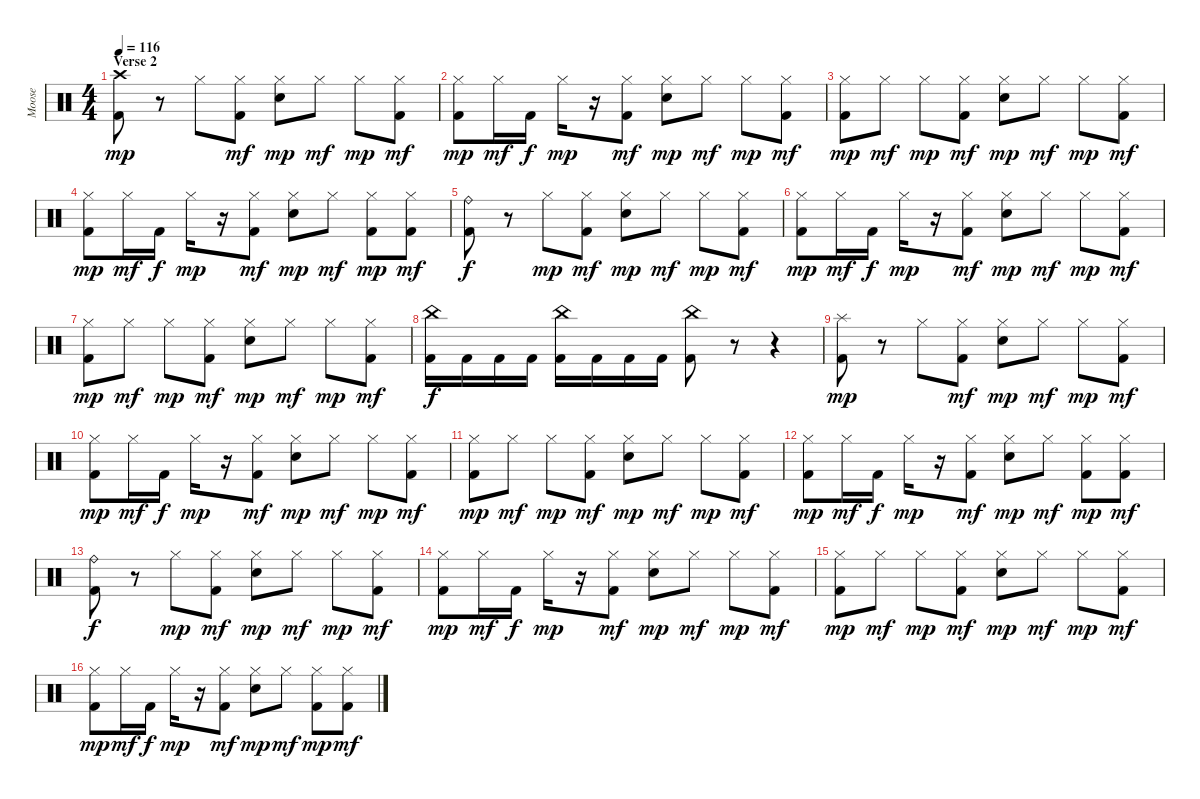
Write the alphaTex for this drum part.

\track ("Moose" "Moose") {instrument percussion}
\staff {score}
\articulation defaults
\ts (4 4)
\section ("" "Verse 2")
\tempo 116
\clef neutral
\ks c
("Kick (hit) 2" "Crash high (hit)").8{dy mp} r.8 "Hi-Hat (closed)".8 ("Kick (hit) 2" "Hi-Hat (closed)").8{dy mf} ("Snare (hit) 2" "Hi-Hat (closed)").8{dy mp} "Hi-Hat (closed)".8{dy mf} "Hi-Hat (closed)".8{dy mp} ("Kick (hit) 2" "Hi-Hat (closed)").8{dy mf} |
("Kick (hit) 2" "Hi-Hat (closed)").8{dy mp} "Hi-Hat (closed)".16{dy mf} "Kick (hit) 2".16{dy f} "Hi-Hat (closed)".16{dy mp} r.16 ("Kick (hit) 2" "Hi-Hat (closed)").8{dy mf} ("Snare (hit) 2" "Hi-Hat (closed)").8{dy mp} "Hi-Hat (closed)".8{dy mf} "Hi-Hat (closed)".8{dy mp} ("Kick (hit) 2" "Hi-Hat (closed)").8{dy mf} |
("Kick (hit) 2" "Hi-Hat (closed)").8{dy mp} "Hi-Hat (closed)".8{dy mf} "Hi-Hat (closed)".8{dy mp} ("Kick (hit) 2" "Hi-Hat (closed)").8{dy mf} ("Snare (hit) 2" "Hi-Hat (closed)").8{dy mp} "Hi-Hat (closed)".8{dy mf} "Hi-Hat (closed)".8{dy mp} ("Kick (hit) 2" "Hi-Hat (closed)").8{dy mf} |
("Kick (hit) 2" "Hi-Hat (closed)").8{dy mp} "Hi-Hat (closed)".16{dy mf} "Kick (hit) 2".16{dy f} "Hi-Hat (closed)".16{dy mp} r.16 ("Kick (hit) 2" "Hi-Hat (closed)").8{dy mf} ("Snare (hit) 2" "Hi-Hat (closed)").8{dy mp} "Hi-Hat (closed)".8{dy mf} ("Kick (hit) 2" "Hi-Hat (closed)").8{dy mp} ("Kick (hit) 2" "Hi-Hat (closed)").8{dy mf} |
("Kick (hit) 2" "Ride (bell)").8{dy f} r.8 "Hi-Hat (closed)".8{dy mp} ("Kick (hit) 2" "Hi-Hat (closed)").8{dy mf} ("Snare (hit) 2" "Hi-Hat (closed)").8{dy mp} "Hi-Hat (closed)".8{dy mf} "Hi-Hat (closed)".8{dy mp} ("Kick (hit) 2" "Hi-Hat (closed)").8{dy mf} |
("Kick (hit) 2" "Hi-Hat (closed)").8{dy mp} "Hi-Hat (closed)".16{dy mf} "Kick (hit) 2".16{dy f} "Hi-Hat (closed)".16{dy mp} r.16 ("Kick (hit) 2" "Hi-Hat (closed)").8{dy mf} ("Snare (hit) 2" "Hi-Hat (closed)").8{dy mp} "Hi-Hat (closed)".8{dy mf} "Hi-Hat (closed)".8{dy mp} ("Kick (hit) 2" "Hi-Hat (closed)").8{dy mf} |
("Kick (hit) 2" "Hi-Hat (closed)").8{dy mp} "Hi-Hat (closed)".8{dy mf} "Hi-Hat (closed)".8{dy mp} ("Kick (hit) 2" "Hi-Hat (closed)").8{dy mf} ("Snare (hit) 2" "Hi-Hat (closed)").8{dy mp} "Hi-Hat (closed)".8{dy mf} "Hi-Hat (closed)".8{dy mp} ("Kick (hit) 2" "Hi-Hat (closed)").8{dy mf} |
("Kick (hit) 2" "China (hit)").16{dy f} "Kick (hit) 2".16 "Kick (hit) 2".16 "Kick (hit) 2".16 ("Kick (hit) 2" "China (hit)").16 "Kick (hit) 2".16 "Kick (hit) 2".16 "Kick (hit) 2".16 ("Kick (hit) 2" "China (hit)").8 r.8 r.4 |
("Kick (hit) 2" "Splash (hit)").8{dy mp} r.8 "Hi-Hat (closed)".8 ("Kick (hit) 2" "Hi-Hat (closed)").8{dy mf} ("Snare (hit) 2" "Hi-Hat (closed)").8{dy mp} "Hi-Hat (closed)".8{dy mf} "Hi-Hat (closed)".8{dy mp} ("Kick (hit) 2" "Hi-Hat (closed)").8{dy mf} |
("Kick (hit) 2" "Hi-Hat (closed)").8{dy mp} "Hi-Hat (closed)".16{dy mf} "Kick (hit) 2".16{dy f} "Hi-Hat (closed)".16{dy mp} r.16 ("Kick (hit) 2" "Hi-Hat (closed)").8{dy mf} ("Snare (hit) 2" "Hi-Hat (closed)").8{dy mp} "Hi-Hat (closed)".8{dy mf} "Hi-Hat (closed)".8{dy mp} ("Kick (hit) 2" "Hi-Hat (closed)").8{dy mf} |
("Kick (hit) 2" "Hi-Hat (closed)").8{dy mp} "Hi-Hat (closed)".8{dy mf} "Hi-Hat (closed)".8{dy mp} ("Kick (hit) 2" "Hi-Hat (closed)").8{dy mf} ("Snare (hit) 2" "Hi-Hat (closed)").8{dy mp} "Hi-Hat (closed)".8{dy mf} "Hi-Hat (closed)".8{dy mp} ("Kick (hit) 2" "Hi-Hat (closed)").8{dy mf} |
("Kick (hit) 2" "Hi-Hat (closed)").8{dy mp} "Hi-Hat (closed)".16{dy mf} "Kick (hit) 2".16{dy f} "Hi-Hat (closed)".16{dy mp} r.16 ("Kick (hit) 2" "Hi-Hat (closed)").8{dy mf} ("Snare (hit) 2" "Hi-Hat (closed)").8{dy mp} "Hi-Hat (closed)".8{dy mf} ("Kick (hit) 2" "Hi-Hat (closed)").8{dy mp} ("Kick (hit) 2" "Hi-Hat (closed)").8{dy mf} |
("Kick (hit) 2" "Ride (bell)").8{dy f} r.8 "Hi-Hat (closed)".8{dy mp} ("Kick (hit) 2" "Hi-Hat (closed)").8{dy mf} ("Snare (hit) 2" "Hi-Hat (closed)").8{dy mp} "Hi-Hat (closed)".8{dy mf} "Hi-Hat (closed)".8{dy mp} ("Kick (hit) 2" "Hi-Hat (closed)").8{dy mf} |
("Kick (hit) 2" "Hi-Hat (closed)").8{dy mp} "Hi-Hat (closed)".16{dy mf} "Kick (hit) 2".16{dy f} "Hi-Hat (closed)".16{dy mp} r.16 ("Kick (hit) 2" "Hi-Hat (closed)").8{dy mf} ("Snare (hit) 2" "Hi-Hat (closed)").8{dy mp} "Hi-Hat (closed)".8{dy mf} "Hi-Hat (closed)".8{dy mp} ("Kick (hit) 2" "Hi-Hat (closed)").8{dy mf} |
("Kick (hit) 2" "Hi-Hat (closed)").8{dy mp} "Hi-Hat (closed)".8{dy mf} "Hi-Hat (closed)".8{dy mp} ("Kick (hit) 2" "Hi-Hat (closed)").8{dy mf} ("Snare (hit) 2" "Hi-Hat (closed)").8{dy mp} "Hi-Hat (closed)".8{dy mf} "Hi-Hat (closed)".8{dy mp} ("Kick (hit) 2" "Hi-Hat (closed)").8{dy mf} |
("Kick (hit) 2" "Hi-Hat (closed)").8{dy mp} "Hi-Hat (closed)".16{dy mf} "Kick (hit) 2".16{dy f} "Hi-Hat (closed)".16{dy mp} r.16 ("Kick (hit) 2" "Hi-Hat (closed)").8{dy mf} ("Snare (hit) 2" "Hi-Hat (closed)").8{dy mp} "Hi-Hat (closed)".8{dy mf} ("Kick (hit) 2" "Hi-Hat (closed)").8{dy mp} ("Kick (hit) 2" "Hi-Hat (closed)").8{dy mf}
